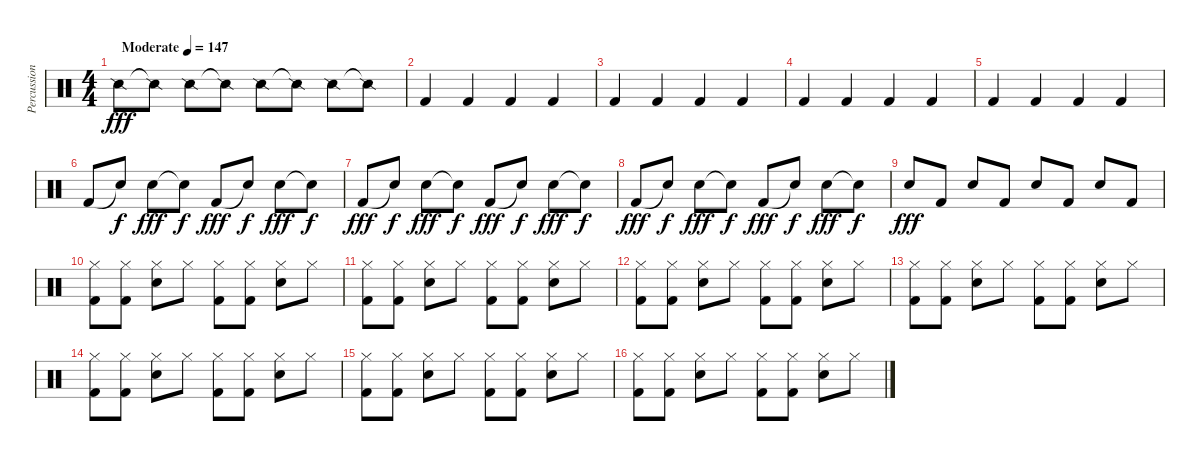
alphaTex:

\track ("Percussion" "Percussion") {instrument percussion}
\staff {score}
\articulation defaults
\ts (4 4)
\tempo (147 "Moderate")
\clef neutral
\ks c "Snare (side stick) 2".8{dy fff} "Snare (side stick) 2"{t}.8 "Snare (side stick) 2".8 "Snare (side stick) 2"{t}.8 "Snare (side stick) 2".8 "Snare (side stick) 2"{t}.8 "Snare (side stick) 2".8 "Snare (side stick) 2"{t}.8
|
"Kick (hit) 2".4 "Kick (hit) 2".4 "Kick (hit) 2".4 "Kick (hit) 2".4 |
"Kick (hit) 2".4 "Kick (hit) 2".4 "Kick (hit) 2".4 "Kick (hit) 2".4 |
"Kick (hit) 2".4 "Kick (hit) 2".4 "Kick (hit) 2".4 "Kick (hit) 2".4 |
"Kick (hit) 2".4 "Kick (hit) 2".4 "Kick (hit) 2".4 "Kick (hit) 2".4 |
"Kick (hit) 2".8 "Snare (hit)"{t}.8{dy f} "Electric Snare (hit)".8{dy fff} "Snare (hit)"{t}.8{dy f} "Kick (hit) 2".8{dy fff} "Snare (hit)"{t}.8{dy f} "Electric Snare (hit)".8{dy fff} "Snare (hit)"{t}.8{dy f} |
"Kick (hit) 2".8{dy fff} "Snare (hit)"{t}.8{dy f} "Electric Snare (hit)".8{dy fff} "Snare (hit)"{t}.8{dy f} "Kick (hit) 2".8{dy fff} "Snare (hit)"{t}.8{dy f} "Electric Snare (hit)".8{dy fff} "Snare (hit)"{t}.8{dy f} |
"Kick (hit) 2".8{dy fff} "Snare (hit)"{t}.8{dy f} "Electric Snare (hit)".8{dy fff} "Snare (hit)"{t}.8{dy f} "Kick (hit) 2".8{dy fff} "Snare (hit)"{t}.8{dy f} "Electric Snare (hit)".8{dy fff} "Snare (hit)"{t}.8{dy f} |
"Electric Snare (hit)".8{dy fff} "Kick (hit) 2".8 "Electric Snare (hit)".8 "Kick (hit) 2".8 "Electric Snare (hit)".8 "Kick (hit) 2".8 "Electric Snare (hit)".8 "Kick (hit) 2".8 |
("Hi-Hat (closed)" "Kick (hit) 2").8 ("Hi-Hat (closed)" "Kick (hit) 2").8 ("Hi-Hat (closed)" "Electric Snare (hit)").8 "Hi-Hat (closed)".8 ("Hi-Hat (closed)" "Kick (hit) 2").8 ("Hi-Hat (closed)" "Kick (hit) 2").8 ("Hi-Hat (closed)" "Electric Snare (hit)").8 "Hi-Hat (closed)".8 |
("Hi-Hat (closed)" "Kick (hit) 2").8 ("Hi-Hat (closed)" "Kick (hit) 2").8 ("Hi-Hat (closed)" "Electric Snare (hit)").8 "Hi-Hat (closed)".8 ("Hi-Hat (closed)" "Kick (hit) 2").8 ("Hi-Hat (closed)" "Kick (hit) 2").8 ("Hi-Hat (closed)" "Electric Snare (hit)").8 "Hi-Hat (closed)".8 |
("Hi-Hat (closed)" "Kick (hit) 2").8 ("Hi-Hat (closed)" "Kick (hit) 2").8 ("Hi-Hat (closed)" "Electric Snare (hit)").8 "Hi-Hat (closed)".8 ("Hi-Hat (closed)" "Kick (hit) 2").8 ("Hi-Hat (closed)" "Kick (hit) 2").8 ("Hi-Hat (closed)" "Electric Snare (hit)").8 "Hi-Hat (closed)".8 |
("Hi-Hat (closed)" "Kick (hit) 2").8 ("Hi-Hat (closed)" "Kick (hit) 2").8 ("Hi-Hat (closed)" "Electric Snare (hit)").8 "Hi-Hat (closed)".8 ("Hi-Hat (closed)" "Kick (hit) 2").8 ("Hi-Hat (closed)" "Kick (hit) 2").8 ("Hi-Hat (closed)" "Electric Snare (hit)").8 "Hi-Hat (closed)".8 |
("Hi-Hat (closed)" "Kick (hit) 2").8 ("Hi-Hat (closed)" "Kick (hit) 2").8 ("Hi-Hat (closed)" "Electric Snare (hit)").8 "Hi-Hat (closed)".8 ("Hi-Hat (closed)" "Kick (hit) 2").8 ("Hi-Hat (closed)" "Kick (hit) 2").8 ("Hi-Hat (closed)" "Electric Snare (hit)").8 "Hi-Hat (closed)".8 |
("Hi-Hat (closed)" "Kick (hit) 2").8 ("Hi-Hat (closed)" "Kick (hit) 2").8 ("Hi-Hat (closed)" "Electric Snare (hit)").8 "Hi-Hat (closed)".8 ("Hi-Hat (closed)" "Kick (hit) 2").8 ("Hi-Hat (closed)" "Kick (hit) 2").8 ("Hi-Hat (closed)" "Electric Snare (hit)").8 "Hi-Hat (closed)".8 |
("Hi-Hat (closed)" "Kick (hit) 2").8 ("Hi-Hat (closed)" "Kick (hit) 2").8 ("Hi-Hat (closed)" "Electric Snare (hit)").8 "Hi-Hat (closed)".8 ("Hi-Hat (closed)" "Kick (hit) 2").8 ("Hi-Hat (closed)" "Kick (hit) 2").8 ("Hi-Hat (closed)" "Electric Snare (hit)").8 "Hi-Hat (closed)".8
